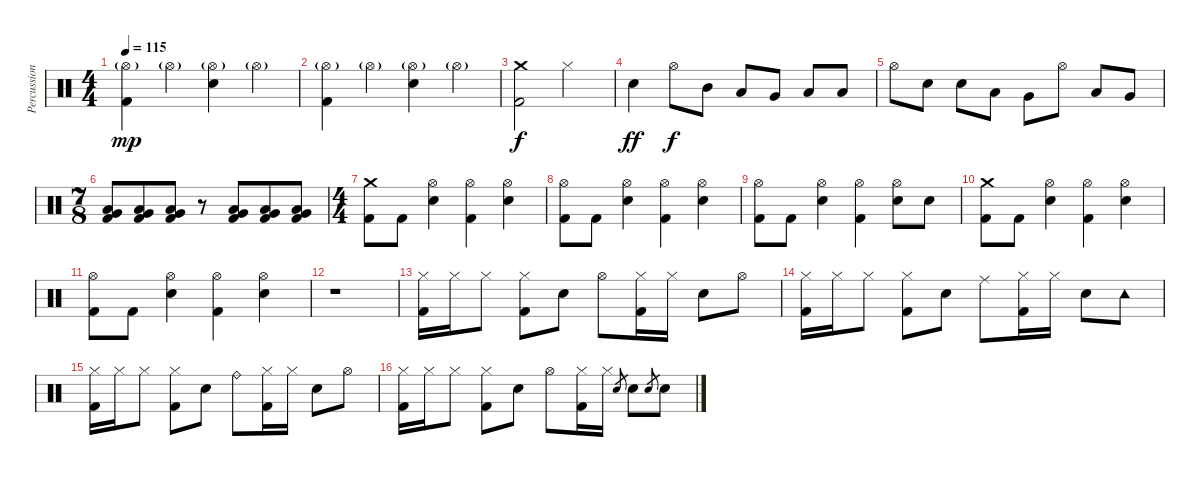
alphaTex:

\track ("Percussioni" "Percussion") {instrument percussion}
\staff {score}
\articulation defaults
\ts (4 4)
\tempo 115
\clef neutral
\ks c
("Hi-Hat (open)"{g} "Kick (hit) 2").4{dy mp} "Hi-Hat (open)"{g}.4 ("Hi-Hat (open)"{g} "Electric Snare (hit)").4 "Hi-Hat (open)"{g}.4 |
("Hi-Hat (open)"{g} "Kick (hit) 2").4 "Hi-Hat (open)"{g}.4 ("Hi-Hat (open)"{g} "Electric Snare (hit)").4 "Hi-Hat (open)"{g}.4 |
("Crash medium (hit)" "Kick (hit) 2").2{dy f} "Hi-Hat (closed)".2 |
"Electric Snare (hit)".4{dy ff} "Hi-Hat (open)".8{dy f} "Mid Tom (hit)".8 "Low Tom (hit)".8 "Very Low Tom (hit)".8 "Low Floor Tom (hit)".8 "Low Floor Tom (hit)".8 |
"Hi-Hat (open)".8 "Electric Snare (hit)".8 "Electric Snare (hit)".8 "Low Tom (hit)".8 "Very Low Tom (hit)".8 "Hi-Hat (open)".8 "Low Tom (hit)".8 "Very Low Tom (hit)".8 |
\ts (7 8)
("Low Tom (hit)" "Very Low Tom (hit)" "Kick (hit) 2").8 ("Low Tom (hit)" "Very Low Tom (hit)" "Kick (hit) 2").8 ("Low Tom (hit)" "Very Low Tom (hit)" "Kick (hit) 2").8 r.8 ("Low Tom (hit)" "Very Low Tom (hit)" "Kick (hit) 2").8 ("Low Tom (hit)" "Very Low Tom (hit)" "Kick (hit) 2").8 ("Low Tom (hit)" "Very Low Tom (hit)" "Kick (hit) 2").8 |
\ts (4 4)
("Crash medium (hit)" "Kick (hit) 2").8 "Kick (hit) 2".8 ("Hi-Hat (open)" "Electric Snare (hit)").4 ("Hi-Hat (open)" "Kick (hit) 2").4 ("Hi-Hat (open)" "Electric Snare (hit)").4 |
("Hi-Hat (open)" "Kick (hit) 2").8 "Kick (hit) 2".8 ("Hi-Hat (open)" "Electric Snare (hit)").4 ("Hi-Hat (open)" "Kick (hit) 2").4 ("Hi-Hat (open)" "Electric Snare (hit)").4 |
("Hi-Hat (open)" "Kick (hit) 2").8 "Kick (hit) 2".8 ("Hi-Hat (open)" "Electric Snare (hit)").4 ("Hi-Hat (open)" "Kick (hit) 2").4 ("Hi-Hat (open)" "Electric Snare (hit)").8 "Electric Snare (hit)".8 |
("Crash medium (hit)" "Kick (hit) 2").8 "Kick (hit) 2".8 ("Hi-Hat (open)" "Electric Snare (hit)").4 ("Hi-Hat (open)" "Kick (hit) 2").4 ("Hi-Hat (open)" "Electric Snare (hit)").4 |
("Hi-Hat (open)" "Kick (hit) 2").8 "Kick (hit) 2".8 ("Hi-Hat (open)" "Electric Snare (hit)").4 ("Hi-Hat (open)" "Kick (hit) 2").4 ("Hi-Hat (open)" "Electric Snare (hit)").4 |
r.1 |
("Hi-Hat (closed)" "Kick (hit) 2").16 "Hi-Hat (closed)".16 "Hi-Hat (closed)".8 ("Hi-Hat (closed)" "Kick (hit) 2").8 "Electric Snare (hit)".8 "Hi-Hat (open)".8 ("Hi-Hat (closed)" "Kick (hit) 2").16 "Hi-Hat (closed)".16 "Electric Snare (hit)".8 "Hi-Hat (open)".8 |
("Hi-Hat (closed)" "Kick (hit) 2").16 "Hi-Hat (closed)".16 "Hi-Hat (closed)".8 ("Hi-Hat (closed)" "Kick (hit) 2").8 "Electric Snare (hit)".8 "Ride (middle)".8 ("Hi-Hat (closed)" "Kick (hit) 2").16 "Hi-Hat (closed)".16 "Electric Snare (hit)".8 "Tambourine (hit)".8 |
("Hi-Hat (closed)" "Kick (hit) 2").16 "Hi-Hat (closed)".16 "Hi-Hat (closed)".8 ("Hi-Hat (closed)" "Kick (hit) 2").8 "Electric Snare (hit)".8 "Ride (bell)".8 ("Hi-Hat (closed)" "Kick (hit) 2").16 "Hi-Hat (closed)".16 "Electric Snare (hit)".8 "Hi-Hat (open)".8 |
("Hi-Hat (closed)" "Kick (hit) 2").16 "Hi-Hat (closed)".16 "Hi-Hat (closed)".8 ("Hi-Hat (closed)" "Kick (hit) 2").8 "Electric Snare (hit)".8 "Hi-Hat (open)".8 ("Hi-Hat (closed)" "Kick (hit) 2").16 "Hi-Hat (closed)".16 "Electric Snare (hit)".8{gr} "Electric Snare (hit)".8 "Electric Snare (hit)".8{gr} "Electric Snare (hit)".8
